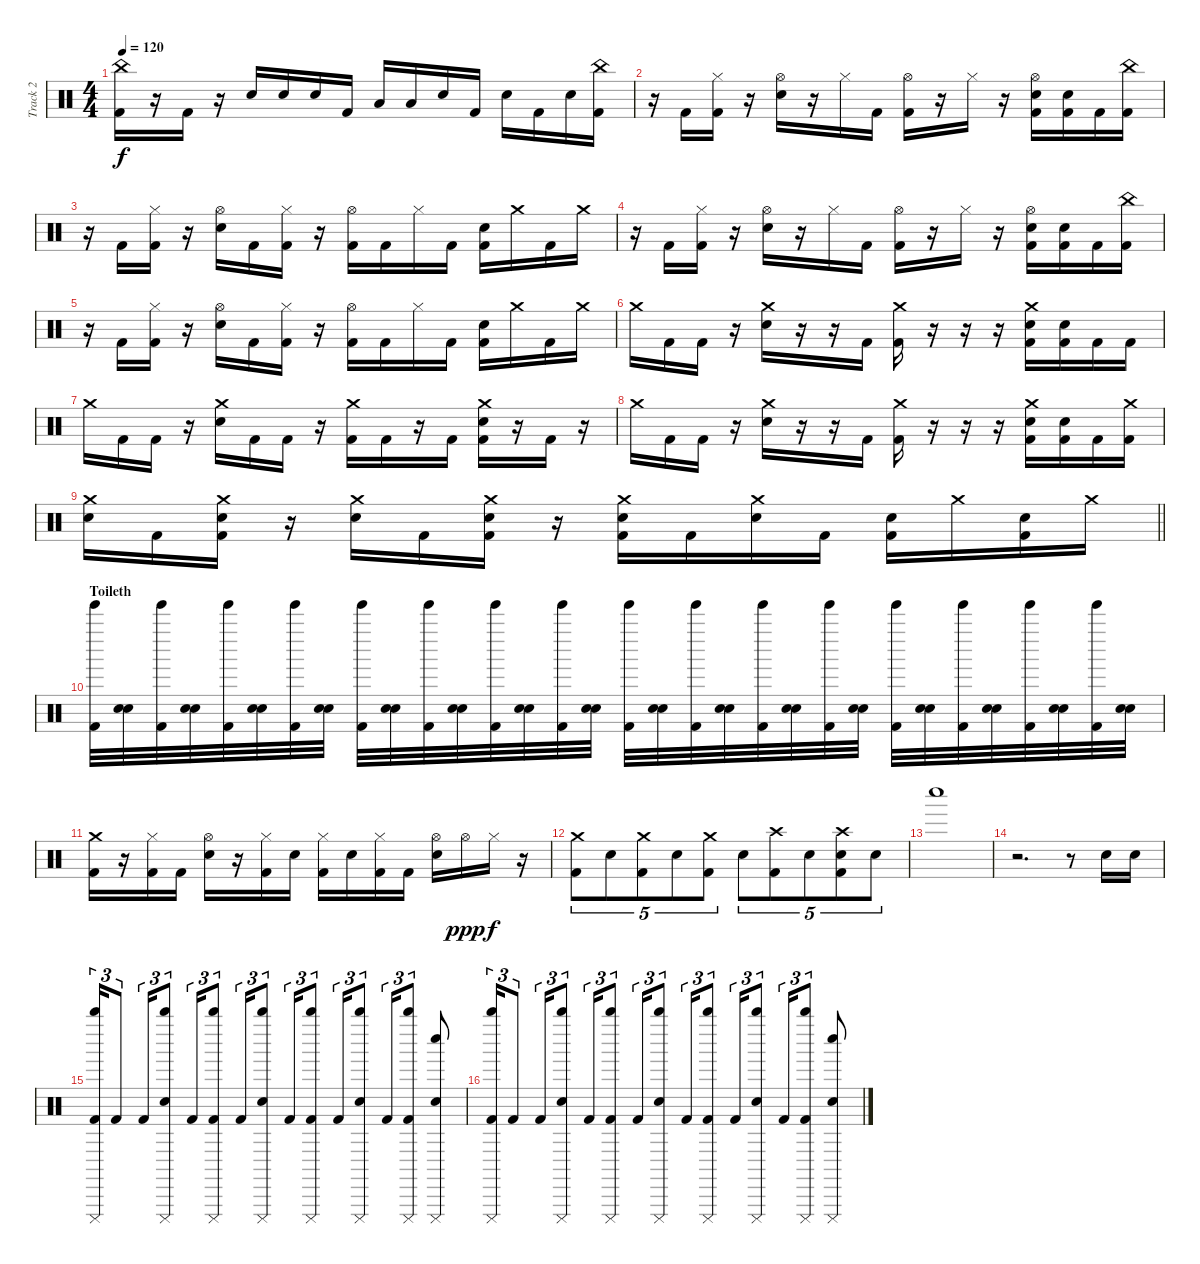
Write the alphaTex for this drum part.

\track ("Track 2" "Track 2") {instrument percussion}
\staff {score}
\articulation defaults
\ts (4 4)
\tempo 120
\clef neutral
\ks c
("China (hit)" "Kick (hit) 2").16{dy f} r.16 "Kick (hit) 2".16 r.16 "Electric Snare (hit)".16 "Electric Snare (hit)".16 "Electric Snare (hit)".16 "Kick (hit) 2".16 "Low Floor Tom (hit)".16 "Low Floor Tom (hit)".16 "Electric Snare (hit)".16 "Kick (hit) 2".16 "Electric Snare (hit)".16 "Kick (hit) 2".16 "Electric Snare (hit)".16 ("China (hit)" "Kick (hit) 2").16 |
r.16 "Kick (hit) 2".16 ("Hi-Hat (closed)" "Kick (hit) 2").16 r.16 ("Hi-Hat (open)" "Electric Snare (hit)").16 r.16 "Hi-Hat (closed)".16 "Kick (hit) 2".16 ("Hi-Hat (open)" "Kick (hit) 2").16 r.16 "Hi-Hat (closed)".16 r.16 ("Hi-Hat (open)" "Electric Snare (hit)" "Kick (hit) 2").16 ("Electric Snare (hit)" "Kick (hit) 2").16 "Kick (hit) 2".16 ("China (hit)" "Kick (hit) 2").16 |
r.16 "Kick (hit) 2".16 ("Hi-Hat (closed)" "Kick (hit) 2").16 r.16 ("Hi-Hat (open)" "Electric Snare (hit)").16 "Kick (hit) 2".16 ("Hi-Hat (closed)" "Kick (hit) 2").16 r.16 ("Hi-Hat (open)" "Kick (hit) 2").16 "Kick (hit) 2".16 "Hi-Hat (closed)".16 "Kick (hit) 2".16 ("Electric Snare (hit)" "Kick (hit) 2").16 "Crash medium (hit)".16 "Kick (hit) 2".16 "Crash medium (hit)".16 |
r.16 "Kick (hit) 2".16 ("Hi-Hat (closed)" "Kick (hit) 2").16 r.16 ("Hi-Hat (open)" "Electric Snare (hit)").16 r.16 "Hi-Hat (closed)".16 "Kick (hit) 2".16 ("Hi-Hat (open)" "Kick (hit) 2").16 r.16 "Hi-Hat (closed)".16 r.16 ("Hi-Hat (open)" "Electric Snare (hit)" "Kick (hit) 2").16 ("Electric Snare (hit)" "Kick (hit) 2").16 "Kick (hit) 2".16 ("China (hit)" "Kick (hit) 2").16 |
r.16 "Kick (hit) 2".16 ("Hi-Hat (closed)" "Kick (hit) 2").16 r.16 ("Hi-Hat (open)" "Electric Snare (hit)").16 "Kick (hit) 2".16 ("Hi-Hat (closed)" "Kick (hit) 2").16 r.16 ("Hi-Hat (open)" "Kick (hit) 2").16 "Kick (hit) 2".16 "Hi-Hat (closed)".16 "Kick (hit) 2".16 ("Electric Snare (hit)" "Kick (hit) 2").16 "Crash medium (hit)".16 "Kick (hit) 2".16 "Crash medium (hit)".16 |
"Crash medium (hit)".16 "Kick (hit) 2".16 "Kick (hit) 2".16 r.16 ("Crash medium (hit)" "Electric Snare (hit)").16 r.16 r.16 "Kick (hit) 2".16 ("Crash medium (hit)" "Kick (hit) 2").16 r.16 r.16 r.16 ("Crash medium (hit)" "Electric Snare (hit)" "Kick (hit) 2").16 ("Electric Snare (hit)" "Kick (hit) 2").16 "Kick (hit) 2".16 "Kick (hit) 2".16 |
"Crash medium (hit)".16 "Kick (hit) 2".16 "Kick (hit) 2".16 r.16 ("Crash medium (hit)" "Electric Snare (hit)").16 "Kick (hit) 2".16 "Kick (hit) 2".16 r.16 ("Crash medium (hit)" "Kick (hit) 2").16 "Kick (hit) 2".16 r.16 "Kick (hit) 2".16 ("Crash medium (hit)" "Electric Snare (hit)" "Kick (hit) 2").16 r.16 "Kick (hit) 2".16 r.16 |
"Crash medium (hit)".16 "Kick (hit) 2".16 "Kick (hit) 2".16 r.16 ("Crash medium (hit)" "Electric Snare (hit)").16 r.16 r.16 "Kick (hit) 2".16 ("Crash medium (hit)" "Kick (hit) 2").16 r.16 r.16 r.16 ("Crash medium (hit)" "Electric Snare (hit)" "Kick (hit) 2").16 ("Electric Snare (hit)" "Kick (hit) 2").16 "Kick (hit) 2".16 ("Crash medium (hit)" "Kick (hit) 2").16 |
\barLineRight lightlight
("Crash medium (hit)" "Electric Snare (hit)").16 "Kick (hit) 2".16 ("Crash medium (hit)" "Electric Snare (hit)" "Kick (hit) 2").16 r.16 ("Crash medium (hit)" "Electric Snare (hit)").16 "Kick (hit) 2".16 ("Crash medium (hit)" "Electric Snare (hit)" "Kick (hit) 2").16 r.16 ("Crash medium (hit)" "Electric Snare (hit)" "Kick (hit) 2").16 "Kick (hit) 2".16 ("Crash medium (hit)" "Electric Snare (hit)").16 "Kick (hit) 2".16 ("Electric Snare (hit)" "Kick (hit) 2").16 "Crash medium (hit)".16 ("Electric Snare (hit)" "Kick (hit) 2").16 "Crash medium (hit)".16 |
\section ("" "Toileth")
("Tinkle Bell (hit)" "Kick (hit) 2").32 ("Hand Clap (hit)" "Snare (hit) 2").32 ("Tinkle Bell (hit)" "Kick (hit) 2").32 ("Hand Clap (hit)" "Snare (hit) 2").32 ("Tinkle Bell (hit)" "Kick (hit) 2").32 ("Hand Clap (hit)" "Snare (hit) 2").32 ("Tinkle Bell (hit)" "Kick (hit) 2").32 ("Hand Clap (hit)" "Snare (hit) 2").32 ("Tinkle Bell (hit)" "Kick (hit) 2").32 ("Hand Clap (hit)" "Snare (hit) 2").32 ("Tinkle Bell (hit)" "Kick (hit) 2").32 ("Hand Clap (hit)" "Snare (hit) 2").32 ("Tinkle Bell (hit)" "Kick (hit) 2").32 ("Hand Clap (hit)" "Snare (hit) 2").32 ("Tinkle Bell (hit)" "Kick (hit) 2").32 ("Hand Clap (hit)" "Snare (hit) 2").32 ("Tinkle Bell (hit)" "Kick (hit) 2").32 ("Hand Clap (hit)" "Snare (hit) 2").32 ("Tinkle Bell (hit)" "Kick (hit) 2").32 ("Hand Clap (hit)" "Snare (hit) 2").32 ("Tinkle Bell (hit)" "Kick (hit) 2").32 ("Hand Clap (hit)" "Snare (hit) 2").32 ("Tinkle Bell (hit)" "Kick (hit) 2").32 ("Hand Clap (hit)" "Snare (hit) 2").32 ("Tinkle Bell (hit)" "Kick (hit) 2").32 ("Hand Clap (hit)" "Snare (hit) 2").32 ("Tinkle Bell (hit)" "Kick (hit) 2").32 ("Hand Clap (hit)" "Snare (hit) 2").32 ("Tinkle Bell (hit)" "Kick (hit) 2").32 ("Hand Clap (hit)" "Snare (hit) 2").32 ("Tinkle Bell (hit)" "Kick (hit) 2").32 ("Hand Clap (hit)" "Snare (hit) 2").32 |
("Crash medium (hit)" "Kick (hit) 2").16 r.16 ("Hi-Hat (closed)" "Kick (hit) 2").16 "Kick (hit) 2".16 ("Hi-Hat (open)" "Snare (hit) 2").16 r.16 ("Hi-Hat (closed)" "Kick (hit) 2").16 "Snare (hit) 2".16 ("Hi-Hat (closed)" "Kick (hit) 2").16 "Snare (hit) 2".16 ("Hi-Hat (closed)" "Kick (hit) 2").16 "Kick (hit) 2".16 ("Hi-Hat (open)" "Snare (hit) 2").16 "Hi-Hat (open)".16{dy ppp} "Hi-Hat (closed)".16{dy f} r.16 |
("Crash medium (hit)" "Kick (hit) 2").8{tu (5 4)} "Snare (hit) 2".8{tu (5 4)} ("Crash medium (hit)" "Kick (hit) 2").8{tu (5 4)} "Snare (hit) 2".8{tu (5 4)} ("Crash medium (hit)" "Kick (hit) 2").8{tu (5 4)} "Snare (hit) 2".8{tu (5 4)} ("Crash high (hit)" "Kick (hit) 2").8{tu (5 4)} "Snare (hit) 2".8{tu (5 4)} ("Crash high (hit)" "Snare (hit) 2" "Kick (hit) 2").8{tu (5 4)} "Snare (hit) 2".8{tu (5 4)} |
"Whistle low (hit)".1 |
r.2{d} r.8 "Electric Snare (hit)".16 "Electric Snare (hit)".16 |
("Whistle high (hit)" "Cuica (mute)" "Kick (hit) 2").16{tu (3 2)} "Kick (hit) 2".8{tu (3 2)} "Kick (hit) 2".16{tu (3 2)} ("Whistle high (hit)" "Cuica (mute)" "Electric Snare (hit)").8{tu (3 2)} "Kick (hit) 2".16{tu (3 2)} ("Whistle high (hit)" "Cuica (mute)" "Kick (hit) 2").8{tu (3 2)} "Kick (hit) 2".16{tu (3 2)} ("Whistle high (hit)" "Cuica (mute)" "Electric Snare (hit)").8{tu (3 2)} "Kick (hit) 2".16{tu (3 2)} ("Whistle high (hit)" "Cuica (mute)" "Kick (hit) 2").8{tu (3 2)} "Kick (hit) 2".16{tu (3 2)} ("Whistle high (hit)" "Cuica (mute)" "Electric Snare (hit)").8{tu (3 2)} "Kick (hit) 2".16{tu (3 2)} ("Whistle high (hit)" "Cuica (mute)" "Kick (hit) 2").8{tu (3 2)} ("Whistle low (hit)" "Cuica (mute)" "Electric Snare (hit)").8 |
("Whistle high (hit)" "Cuica (mute)" "Kick (hit) 2").16{tu (3 2)} "Kick (hit) 2".8{tu (3 2)} "Kick (hit) 2".16{tu (3 2)} ("Whistle high (hit)" "Cuica (mute)" "Electric Snare (hit)").8{tu (3 2)} "Kick (hit) 2".16{tu (3 2)} ("Whistle high (hit)" "Cuica (mute)" "Kick (hit) 2").8{tu (3 2)} "Kick (hit) 2".16{tu (3 2)} ("Whistle high (hit)" "Cuica (mute)" "Electric Snare (hit)").8{tu (3 2)} "Kick (hit) 2".16{tu (3 2)} ("Whistle high (hit)" "Cuica (mute)" "Kick (hit) 2").8{tu (3 2)} "Kick (hit) 2".16{tu (3 2)} ("Whistle high (hit)" "Cuica (mute)" "Electric Snare (hit)").8{tu (3 2)} "Kick (hit) 2".16{tu (3 2)} ("Whistle high (hit)" "Cuica (mute)" "Kick (hit) 2").8{tu (3 2)} ("Whistle low (hit)" "Cuica (mute)" "Electric Snare (hit)").8
